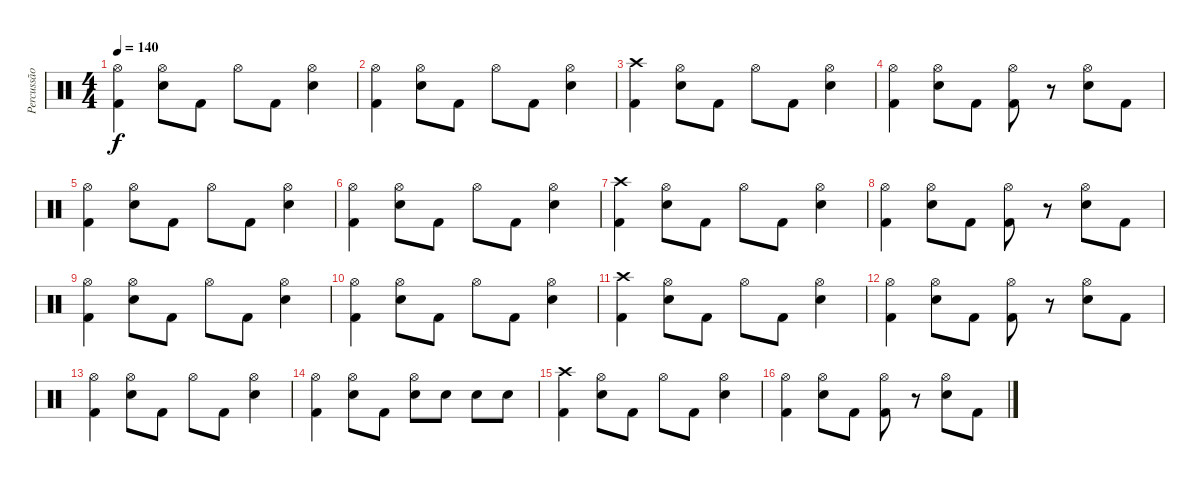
\track ("Percussão" "Percussão") {instrument percussion}
\staff {score}
\articulation defaults
\ts (4 4)
\tempo 140
\clef neutral
\ks c
("Hi-Hat (open)" "Kick (hit) 2").4{dy f} ("Hi-Hat (open)" "Electric Snare (hit)").8 "Kick (hit) 2".8 "Hi-Hat (open)".8 "Kick (hit) 2".8 ("Hi-Hat (open)" "Electric Snare (hit)").4 |
("Hi-Hat (open)" "Kick (hit) 2").4 ("Hi-Hat (open)" "Electric Snare (hit)").8 "Kick (hit) 2".8 "Hi-Hat (open)".8 "Kick (hit) 2".8 ("Hi-Hat (open)" "Electric Snare (hit)").4 |
("Crash high (hit)" "Kick (hit) 2").4 ("Hi-Hat (open)" "Electric Snare (hit)").8 "Kick (hit) 2".8 "Hi-Hat (open)".8 "Kick (hit) 2".8 ("Hi-Hat (open)" "Electric Snare (hit)").4 |
("Hi-Hat (open)" "Kick (hit) 2").4 ("Hi-Hat (open)" "Electric Snare (hit)").8 "Kick (hit) 2".8 ("Hi-Hat (open)" "Kick (hit) 2").8 r.8 ("Hi-Hat (open)" "Electric Snare (hit)").8 "Kick (hit) 2".8 |
("Hi-Hat (open)" "Kick (hit) 2").4 ("Hi-Hat (open)" "Electric Snare (hit)").8 "Kick (hit) 2".8 "Hi-Hat (open)".8 "Kick (hit) 2".8 ("Hi-Hat (open)" "Electric Snare (hit)").4 |
("Hi-Hat (open)" "Kick (hit) 2").4 ("Hi-Hat (open)" "Electric Snare (hit)").8 "Kick (hit) 2".8 "Hi-Hat (open)".8 "Kick (hit) 2".8 ("Hi-Hat (open)" "Electric Snare (hit)").4 |
("Crash high (hit)" "Kick (hit) 2").4 ("Hi-Hat (open)" "Electric Snare (hit)").8 "Kick (hit) 2".8 "Hi-Hat (open)".8 "Kick (hit) 2".8 ("Hi-Hat (open)" "Electric Snare (hit)").4 |
("Hi-Hat (open)" "Kick (hit) 2").4 ("Hi-Hat (open)" "Electric Snare (hit)").8 "Kick (hit) 2".8 ("Hi-Hat (open)" "Kick (hit) 2").8 r.8 ("Hi-Hat (open)" "Electric Snare (hit)").8 "Kick (hit) 2".8 |
("Hi-Hat (open)" "Kick (hit) 2").4 ("Hi-Hat (open)" "Electric Snare (hit)").8 "Kick (hit) 2".8 "Hi-Hat (open)".8 "Kick (hit) 2".8 ("Hi-Hat (open)" "Electric Snare (hit)").4 |
("Hi-Hat (open)" "Kick (hit) 2").4 ("Hi-Hat (open)" "Electric Snare (hit)").8 "Kick (hit) 2".8 "Hi-Hat (open)".8 "Kick (hit) 2".8 ("Hi-Hat (open)" "Electric Snare (hit)").4 |
("Crash high (hit)" "Kick (hit) 2").4 ("Hi-Hat (open)" "Electric Snare (hit)").8 "Kick (hit) 2".8 "Hi-Hat (open)".8 "Kick (hit) 2".8 ("Hi-Hat (open)" "Electric Snare (hit)").4 |
("Hi-Hat (open)" "Kick (hit) 2").4 ("Hi-Hat (open)" "Electric Snare (hit)").8 "Kick (hit) 2".8 ("Hi-Hat (open)" "Kick (hit) 2").8 r.8 ("Hi-Hat (open)" "Electric Snare (hit)").8 "Kick (hit) 2".8 |
("Hi-Hat (open)" "Kick (hit) 2").4 ("Hi-Hat (open)" "Electric Snare (hit)").8 "Kick (hit) 2".8 "Hi-Hat (open)".8 "Kick (hit) 2".8 ("Hi-Hat (open)" "Electric Snare (hit)").4 |
("Hi-Hat (open)" "Kick (hit) 2").4 ("Hi-Hat (open)" "Electric Snare (hit)").8 "Kick (hit) 2".8 ("Hi-Hat (open)" "Electric Snare (hit)").8 "Electric Snare (hit)".8 "Electric Snare (hit)".8 "Electric Snare (hit)".8 |
("Crash high (hit)" "Kick (hit) 2").4 ("Hi-Hat (open)" "Electric Snare (hit)").8 "Kick (hit) 2".8 "Hi-Hat (open)".8 "Kick (hit) 2".8 ("Hi-Hat (open)" "Electric Snare (hit)").4 |
("Hi-Hat (open)" "Kick (hit) 2").4 ("Hi-Hat (open)" "Electric Snare (hit)").8 "Kick (hit) 2".8 ("Hi-Hat (open)" "Kick (hit) 2").8 r.8 ("Hi-Hat (open)" "Electric Snare (hit)").8 "Kick (hit) 2".8
